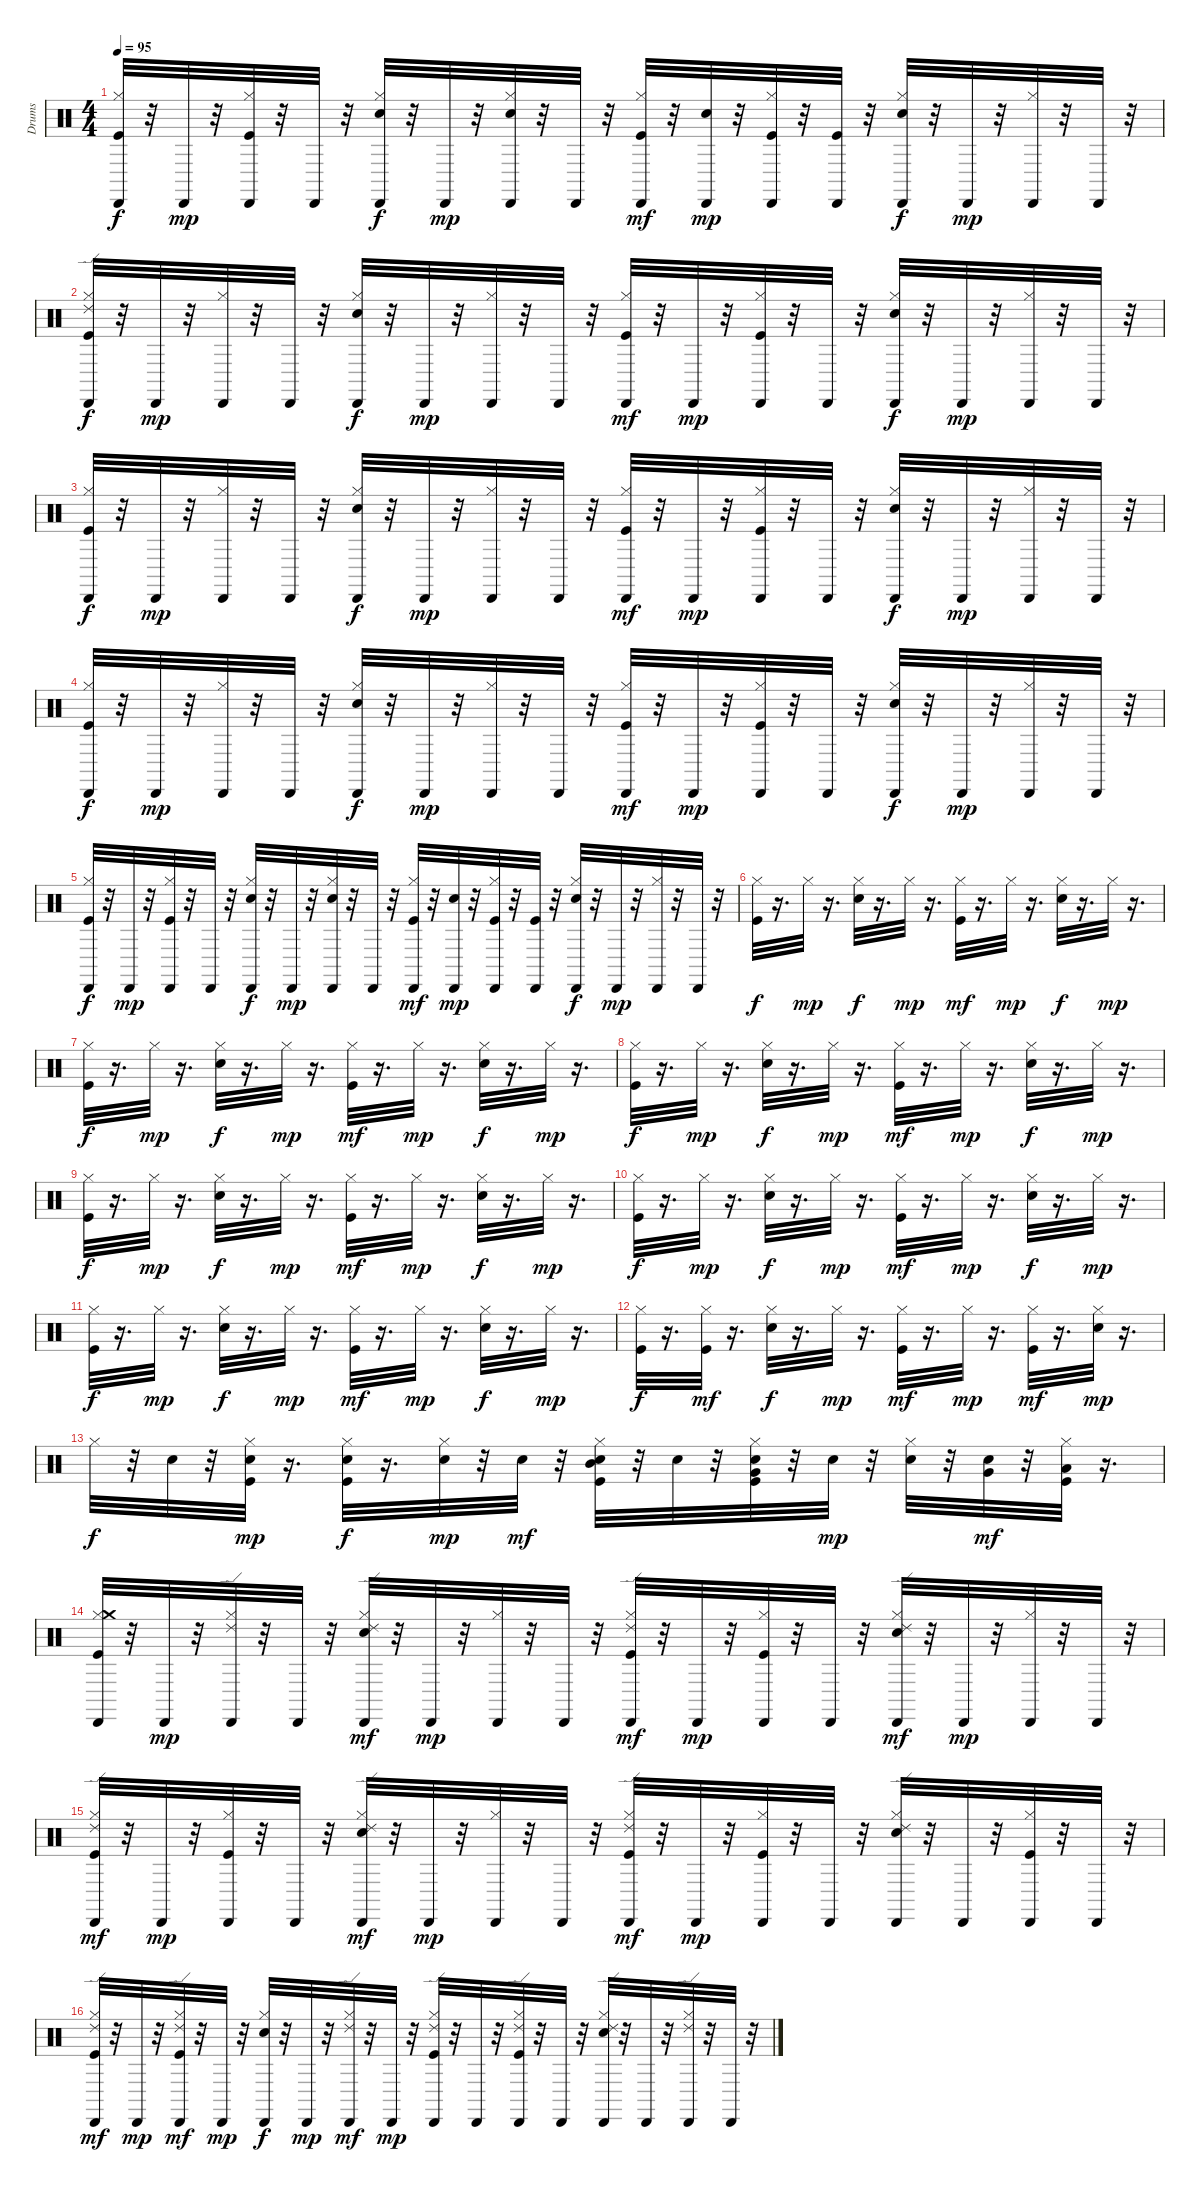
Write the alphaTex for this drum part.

\track ("Drums" "Drums") {instrument percussion}
\staff {score}
\articulation defaults
\ts (4 4)
\tempo 95
\clef neutral
\ks c
("Hi-Hat (closed)" "Kick (hit)" "Cabasa (hit)").32{dy f} r.32 "Cabasa (hit)".32{dy mp} r.32 ("Hi-Hat (closed)" "Kick (hit)" "Cabasa (hit)").32 r.32 "Cabasa (hit)".32 r.32 ("Hi-Hat (closed)" "Electric Snare (hit)" "Cabasa (hit)").32{dy f} r.32 "Cabasa (hit)".32{dy mp} r.32 ("Hi-Hat (closed)" "Electric Snare (hit)" "Cabasa (hit)").32 r.32 "Cabasa (hit)".32 r.32 ("Hi-Hat (closed)" "Kick (hit)" "Cabasa (hit)").32{dy mf} r.32 ("Electric Snare (hit)" "Cabasa (hit)").32{dy mp} r.32 ("Hi-Hat (closed)" "Kick (hit)" "Cabasa (hit)").32 r.32 ("Kick (hit)" "Cabasa (hit)").32 r.32 ("Hi-Hat (closed)" "Electric Snare (hit)" "Cabasa (hit)").32{dy f} r.32 "Cabasa (hit)".32{dy mp} r.32 ("Hi-Hat (closed)" "Cabasa (hit)").32 r.32 "Cabasa (hit)".32 r.32 |
("Kick (hit)" "Hi-Hat (closed)" "Ride (edge) 2" "Cabasa (hit)").32{dy f} r.32 "Cabasa (hit)".32{dy mp} r.32 ("Hi-Hat (closed)" "Cabasa (hit)").32 r.32 "Cabasa (hit)".32 r.32 ("Hi-Hat (closed)" "Electric Snare (hit)" "Cabasa (hit)").32{dy f} r.32 "Cabasa (hit)".32{dy mp} r.32 ("Hi-Hat (closed)" "Cabasa (hit)").32 r.32 "Cabasa (hit)".32 r.32 ("Hi-Hat (closed)" "Kick (hit)" "Cabasa (hit)").32{dy mf} r.32 "Cabasa (hit)".32{dy mp} r.32 ("Hi-Hat (closed)" "Kick (hit)" "Cabasa (hit)").32 r.32 "Cabasa (hit)".32 r.32 ("Hi-Hat (closed)" "Electric Snare (hit)" "Cabasa (hit)").32{dy f} r.32 "Cabasa (hit)".32{dy mp} r.32 ("Hi-Hat (closed)" "Cabasa (hit)").32 r.32 "Cabasa (hit)".32 r.32 |
("Hi-Hat (closed)" "Kick (hit)" "Cabasa (hit)").32{dy f} r.32 "Cabasa (hit)".32{dy mp} r.32 ("Hi-Hat (closed)" "Cabasa (hit)").32 r.32 "Cabasa (hit)".32 r.32 ("Hi-Hat (closed)" "Electric Snare (hit)" "Cabasa (hit)").32{dy f} r.32 "Cabasa (hit)".32{dy mp} r.32 ("Hi-Hat (closed)" "Cabasa (hit)").32 r.32 "Cabasa (hit)".32 r.32 ("Hi-Hat (closed)" "Kick (hit)" "Cabasa (hit)").32{dy mf} r.32 "Cabasa (hit)".32{dy mp} r.32 ("Hi-Hat (closed)" "Kick (hit)" "Cabasa (hit)").32 r.32 "Cabasa (hit)".32 r.32 ("Hi-Hat (closed)" "Electric Snare (hit)" "Cabasa (hit)").32{dy f} r.32 "Cabasa (hit)".32{dy mp} r.32 ("Hi-Hat (closed)" "Cabasa (hit)").32 r.32 "Cabasa (hit)".32 r.32 |
("Kick (hit)" "Hi-Hat (closed)" "Cabasa (hit)").32{dy f} r.32 "Cabasa (hit)".32{dy mp} r.32 ("Hi-Hat (closed)" "Cabasa (hit)").32 r.32 "Cabasa (hit)".32 r.32 ("Hi-Hat (closed)" "Electric Snare (hit)" "Cabasa (hit)").32{dy f} r.32 "Cabasa (hit)".32{dy mp} r.32 ("Hi-Hat (closed)" "Cabasa (hit)").32 r.32 "Cabasa (hit)".32 r.32 ("Hi-Hat (closed)" "Kick (hit)" "Cabasa (hit)").32{dy mf} r.32 "Cabasa (hit)".32{dy mp} r.32 ("Hi-Hat (closed)" "Kick (hit)" "Cabasa (hit)").32 r.32 "Cabasa (hit)".32 r.32 ("Hi-Hat (closed)" "Electric Snare (hit)" "Cabasa (hit)").32{dy f} r.32 "Cabasa (hit)".32{dy mp} r.32 ("Hi-Hat (closed)" "Cabasa (hit)").32 r.32 "Cabasa (hit)".32 r.32 |
("Hi-Hat (closed)" "Kick (hit)" "Cabasa (hit)").32{dy f} r.32 "Cabasa (hit)".32{dy mp} r.32 ("Hi-Hat (closed)" "Kick (hit)" "Cabasa (hit)").32 r.32 "Cabasa (hit)".32 r.32 ("Hi-Hat (closed)" "Electric Snare (hit)" "Cabasa (hit)").32{dy f} r.32 "Cabasa (hit)".32{dy mp} r.32 ("Hi-Hat (closed)" "Electric Snare (hit)" "Cabasa (hit)").32 r.32 "Cabasa (hit)".32 r.32 ("Hi-Hat (closed)" "Kick (hit)" "Cabasa (hit)").32{dy mf} r.32 ("Electric Snare (hit)" "Cabasa (hit)").32{dy mp} r.32 ("Hi-Hat (closed)" "Kick (hit)" "Cabasa (hit)").32 r.32 ("Kick (hit)" "Cabasa (hit)").32 r.32 ("Hi-Hat (closed)" "Electric Snare (hit)" "Cabasa (hit)").32{dy f} r.32 "Cabasa (hit)".32{dy mp} r.32 ("Hi-Hat (closed)" "Cabasa (hit)").32 r.32 "Cabasa (hit)".32 r.32 |
("Kick (hit)" "Hi-Hat (closed)").32{dy f} r.16{d} "Hi-Hat (closed)".32{dy mp} r.16{d} ("Hi-Hat (closed)" "Electric Snare (hit)").32{dy f} r.16{d} "Hi-Hat (closed)".32{dy mp} r.16{d} ("Hi-Hat (closed)" "Kick (hit)").32{dy mf} r.16{d} "Hi-Hat (closed)".32{dy mp} r.16{d} ("Hi-Hat (closed)" "Electric Snare (hit)").32{dy f} r.16{d} "Hi-Hat (closed)".32{dy mp} r.16{d} |
("Hi-Hat (closed)" "Kick (hit)").32{dy f} r.16{d} "Hi-Hat (closed)".32{dy mp} r.16{d} ("Hi-Hat (closed)" "Electric Snare (hit)").32{dy f} r.16{d} "Hi-Hat (closed)".32{dy mp} r.16{d} ("Hi-Hat (closed)" "Kick (hit)").32{dy mf} r.16{d} "Hi-Hat (closed)".32{dy mp} r.16{d} ("Hi-Hat (closed)" "Electric Snare (hit)").32{dy f} r.16{d} "Hi-Hat (closed)".32{dy mp} r.16{d} |
("Kick (hit)" "Hi-Hat (closed)").32{dy f} r.16{d} "Hi-Hat (closed)".32{dy mp} r.16{d} ("Hi-Hat (closed)" "Electric Snare (hit)").32{dy f} r.16{d} "Hi-Hat (closed)".32{dy mp} r.16{d} ("Hi-Hat (closed)" "Kick (hit)").32{dy mf} r.16{d} "Hi-Hat (closed)".32{dy mp} r.16{d} ("Hi-Hat (closed)" "Electric Snare (hit)").32{dy f} r.16{d} "Hi-Hat (closed)".32{dy mp} r.16{d} |
("Hi-Hat (closed)" "Kick (hit)").32{dy f} r.16{d} "Hi-Hat (closed)".32{dy mp} r.16{d} ("Hi-Hat (closed)" "Electric Snare (hit)").32{dy f} r.16{d} "Hi-Hat (closed)".32{dy mp} r.16{d} ("Hi-Hat (closed)" "Kick (hit)").32{dy mf} r.16{d} "Hi-Hat (closed)".32{dy mp} r.16{d} ("Hi-Hat (closed)" "Electric Snare (hit)").32{dy f} r.16{d} "Hi-Hat (closed)".32{dy mp} r.16{d} |
("Kick (hit)" "Hi-Hat (closed)").32{dy f} r.16{d} "Hi-Hat (closed)".32{dy mp} r.16{d} ("Hi-Hat (closed)" "Electric Snare (hit)").32{dy f} r.16{d} "Hi-Hat (closed)".32{dy mp} r.16{d} ("Hi-Hat (closed)" "Kick (hit)").32{dy mf} r.16{d} "Hi-Hat (closed)".32{dy mp} r.16{d} ("Hi-Hat (closed)" "Electric Snare (hit)").32{dy f} r.16{d} "Hi-Hat (closed)".32{dy mp} r.16{d} |
("Hi-Hat (closed)" "Kick (hit)").32{dy f} r.16{d} "Hi-Hat (closed)".32{dy mp} r.16{d} ("Hi-Hat (closed)" "Electric Snare (hit)").32{dy f} r.16{d} "Hi-Hat (closed)".32{dy mp} r.16{d} ("Hi-Hat (closed)" "Kick (hit)").32{dy mf} r.16{d} "Hi-Hat (closed)".32{dy mp} r.16{d} ("Hi-Hat (closed)" "Electric Snare (hit)").32{dy f} r.16{d} "Hi-Hat (closed)".32{dy mp} r.16{d} |
("Kick (hit)" "Hi-Hat (closed)").32{dy f} r.16{d} ("Hi-Hat (closed)" "Kick (hit)").32{dy mf} r.16{d} ("Hi-Hat (closed)" "Electric Snare (hit)").32{dy f} r.16{d} "Hi-Hat (closed)".32{dy mp} r.16{d} ("Hi-Hat (closed)" "Kick (hit)").32{dy mf} r.16{d} "Hi-Hat (closed)".32{dy mp} r.16{d} ("Hi-Hat (closed)" "Kick (hit)").32{dy mf} r.16{d} ("Hi-Hat (closed)" "Electric Snare (hit)").32{dy mp} r.16{d} |
"Hi-Hat (closed)".32{dy f} r.32 "Electric Snare (hit)".32 r.32 ("Hi-Hat (closed)" "Kick (hit)" "Electric Snare (hit)").32{dy mp} r.16{d} ("Hi-Hat (closed)" "Kick (hit)" "Electric Snare (hit)").32{dy f} r.16{d} ("Hi-Hat (closed)" "Electric Snare (hit)").32{dy mp} r.32 "Electric Snare (hit)".32{dy mf} r.32 ("Hi-Hat (closed)" "Kick (hit)" "Electric Snare (hit)" "Mid Tom (hit)").32 r.32 "Electric Snare (hit)".32 r.32 ("Hi-Hat (closed)" "Kick (hit)" "Electric Snare (hit)" "Very Low Tom (hit)").32 r.32 "Electric Snare (hit)".32{dy mp} r.32 ("Hi-Hat (closed)" "Electric Snare (hit)").32 r.32 ("Electric Snare (hit)" "Very Low Tom (hit)").32{dy mf} r.32 ("Hi-Hat (closed)" "Kick (hit)" "Low Floor Tom (hit)").32 r.16{d} |
("Kick (hit)" "Hi-Hat (closed)" "Crash medium (hit)" "Cabasa (hit)").32 r.32 "Cabasa (hit)".32{dy mp} r.32 ("Hi-Hat (closed)" "Cabasa (hit)" "Ride (edge) 2").32 r.32 "Cabasa (hit)".32 r.32 ("Hi-Hat (closed)" "Electric Snare (hit)" "Cabasa (hit)" "Ride (edge) 2").32{dy mf} r.32 "Cabasa (hit)".32{dy mp} r.32 ("Hi-Hat (closed)" "Cabasa (hit)").32 r.32 "Cabasa (hit)".32 r.32 ("Hi-Hat (closed)" "Kick (hit)" "Cabasa (hit)" "Ride (edge) 2").32{dy mf} r.32 "Cabasa (hit)".32{dy mp} r.32 ("Hi-Hat (closed)" "Kick (hit)" "Cabasa (hit)").32 r.32 "Cabasa (hit)".32 r.32 ("Hi-Hat (closed)" "Electric Snare (hit)" "Cabasa (hit)" "Ride (edge) 2").32{dy mf} r.32 "Cabasa (hit)".32{dy mp} r.32 ("Hi-Hat (closed)" "Cabasa (hit)").32 r.32 "Cabasa (hit)".32 r.32 |
("Hi-Hat (closed)" "Kick (hit)" "Cabasa (hit)" "Ride (edge) 2").32{dy mf} r.32 "Cabasa (hit)".32{dy mp} r.32 ("Hi-Hat (closed)" "Kick (hit)" "Cabasa (hit)").32 r.32 "Cabasa (hit)".32 r.32 ("Hi-Hat (closed)" "Electric Snare (hit)" "Cabasa (hit)" "Ride (edge) 2").32{dy mf} r.32 "Cabasa (hit)".32{dy mp} r.32 ("Hi-Hat (closed)" "Cabasa (hit)").32 r.32 "Cabasa (hit)".32 r.32 ("Hi-Hat (closed)" "Kick (hit)" "Cabasa (hit)" "Ride (edge) 2").32{dy mf} r.32 "Cabasa (hit)".32{dy mp} r.32 ("Hi-Hat (closed)" "Kick (hit)" "Cabasa (hit)").32 r.32 "Cabasa (hit)".32 r.32 ("Hi-Hat (closed)" "Electric Snare (hit)" "Cabasa (hit)" "Ride (edge) 2").32 r.32 "Cabasa (hit)".32 r.32 ("Hi-Hat (closed)" "Kick (hit)" "Cabasa (hit)").32 r.32 "Cabasa (hit)".32 r.32 |
("Kick (hit)" "Hi-Hat (closed)" "Cabasa (hit)" "Ride (edge) 2").32{dy mf} r.32 "Cabasa (hit)".32{dy mp} r.32 ("Hi-Hat (closed)" "Kick (hit)" "Cabasa (hit)" "Ride (edge) 2").32{dy mf} r.32 "Cabasa (hit)".32{dy mp} r.32 ("Hi-Hat (closed)" "Electric Snare (hit)" "Cabasa (hit)").32{dy f} r.32 "Cabasa (hit)".32{dy mp} r.32 ("Hi-Hat (closed)" "Cabasa (hit)" "Ride (edge) 2").32{dy mf} r.32 "Cabasa (hit)".32{dy mp} r.32 ("Hi-Hat (closed)" "Kick (hit)" "Cabasa (hit)" "Ride (edge) 2").32 r.32 "Cabasa (hit)".32 r.32 ("Hi-Hat (closed)" "Kick (hit)" "Cabasa (hit)" "Ride (edge) 2").32 r.32 "Cabasa (hit)".32 r.32 ("Hi-Hat (closed)" "Electric Snare (hit)" "Cabasa (hit)" "Ride (edge) 2").32 r.32 "Cabasa (hit)".32 r.32 ("Hi-Hat (closed)" "Cabasa (hit)" "Ride (edge) 2").32 r.32 "Cabasa (hit)".32 r.32
